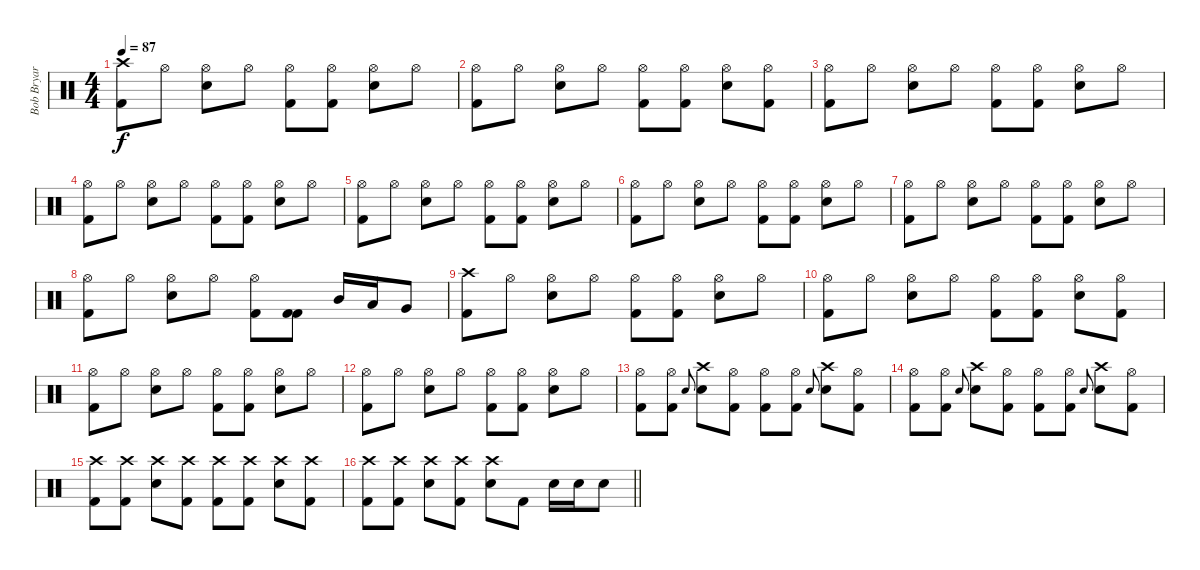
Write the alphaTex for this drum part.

\track ("Bob Bryar" "Bob Bryar") {instrument percussion}
\staff {score}
\articulation defaults
\ts (4 4)
\tempo 87
\clef neutral
\ks c
("Crash high (hit)" "Kick (hit) 2").8{dy f} "Hi-Hat (open)".8 ("Hi-Hat (open)" "Electric Snare (hit)").8 "Hi-Hat (open)".8 ("Hi-Hat (open)" "Kick (hit) 2").8 ("Hi-Hat (open)" "Kick (hit) 2").8 ("Hi-Hat (open)" "Electric Snare (hit)").8 "Hi-Hat (open)".8 |
("Hi-Hat (open)" "Kick (hit) 2").8 "Hi-Hat (open)".8 ("Hi-Hat (open)" "Electric Snare (hit)").8 "Hi-Hat (open)".8 ("Hi-Hat (open)" "Kick (hit) 2").8 ("Hi-Hat (open)" "Kick (hit) 2").8 ("Hi-Hat (open)" "Electric Snare (hit)").8 ("Hi-Hat (open)" "Kick (hit) 2").8 |
("Hi-Hat (open)" "Kick (hit) 2").8 "Hi-Hat (open)".8 ("Hi-Hat (open)" "Electric Snare (hit)").8 "Hi-Hat (open)".8 ("Hi-Hat (open)" "Kick (hit) 2").8 ("Hi-Hat (open)" "Kick (hit) 2").8 ("Hi-Hat (open)" "Electric Snare (hit)").8 "Hi-Hat (open)".8 |
("Hi-Hat (open)" "Kick (hit) 2").8 "Hi-Hat (open)".8 ("Hi-Hat (open)" "Electric Snare (hit)").8 "Hi-Hat (open)".8 ("Hi-Hat (open)" "Kick (hit) 2").8 ("Hi-Hat (open)" "Kick (hit) 2").8 ("Hi-Hat (open)" "Electric Snare (hit)").8 "Hi-Hat (open)".8 |
("Hi-Hat (open)" "Kick (hit) 2").8 "Hi-Hat (open)".8 ("Hi-Hat (open)" "Electric Snare (hit)").8 "Hi-Hat (open)".8 ("Hi-Hat (open)" "Kick (hit) 2").8 ("Hi-Hat (open)" "Kick (hit) 2").8 ("Hi-Hat (open)" "Electric Snare (hit)").8 "Hi-Hat (open)".8 |
("Hi-Hat (open)" "Kick (hit) 2").8 "Hi-Hat (open)".8 ("Hi-Hat (open)" "Electric Snare (hit)").8 "Hi-Hat (open)".8 ("Hi-Hat (open)" "Kick (hit) 2").8 ("Hi-Hat (open)" "Kick (hit) 2").8 ("Hi-Hat (open)" "Electric Snare (hit)").8 "Hi-Hat (open)".8 |
("Hi-Hat (open)" "Kick (hit) 2").8 "Hi-Hat (open)".8 ("Hi-Hat (open)" "Electric Snare (hit)").8 "Hi-Hat (open)".8 ("Hi-Hat (open)" "Kick (hit) 2").8 ("Hi-Hat (open)" "Kick (hit) 2").8 ("Hi-Hat (open)" "Electric Snare (hit)").8 "Hi-Hat (open)".8 |
("Hi-Hat (open)" "Kick (hit) 2").8 "Hi-Hat (open)".8 ("Hi-Hat (open)" "Electric Snare (hit)").8 "Hi-Hat (open)".8 ("Hi-Hat (open)" "Kick (hit) 2").8 ("Kick (hit) 2" "Kick (hit) 2").8 "Mid Tom (hit)".16 "Low Tom (hit)".16 "Very Low Tom (hit)".8 |
("Crash high (hit)" "Kick (hit) 2").8 "Hi-Hat (open)".8 ("Hi-Hat (open)" "Electric Snare (hit)").8 "Hi-Hat (open)".8 ("Hi-Hat (open)" "Kick (hit) 2").8 ("Hi-Hat (open)" "Kick (hit) 2").8 ("Hi-Hat (open)" "Electric Snare (hit)").8 "Hi-Hat (open)".8 |
("Hi-Hat (open)" "Kick (hit) 2").8 "Hi-Hat (open)".8 ("Hi-Hat (open)" "Electric Snare (hit)").8 "Hi-Hat (open)".8 ("Hi-Hat (open)" "Kick (hit) 2").8 ("Hi-Hat (open)" "Kick (hit) 2").8 ("Hi-Hat (open)" "Electric Snare (hit)").8 ("Hi-Hat (open)" "Kick (hit) 2").8 |
("Hi-Hat (open)" "Kick (hit) 2").8 "Hi-Hat (open)".8 ("Hi-Hat (open)" "Electric Snare (hit)").8 "Hi-Hat (open)".8 ("Hi-Hat (open)" "Kick (hit) 2").8 ("Hi-Hat (open)" "Kick (hit) 2").8 ("Hi-Hat (open)" "Electric Snare (hit)").8 "Hi-Hat (open)".8 |
("Hi-Hat (open)" "Kick (hit) 2").8 "Hi-Hat (open)".8 ("Hi-Hat (open)" "Electric Snare (hit)").8 "Hi-Hat (open)".8 ("Hi-Hat (open)" "Kick (hit) 2").8 ("Hi-Hat (open)" "Kick (hit) 2").8 ("Hi-Hat (open)" "Electric Snare (hit)").8 "Hi-Hat (open)".8 |
("Hi-Hat (open)" "Kick (hit) 2").8 ("Hi-Hat (open)" "Kick (hit) 2").8 "Electric Snare (hit)".8{gr onbeat} ("Crash high (hit)" "Electric Snare (hit)").8 ("Hi-Hat (open)" "Kick (hit) 2").8 ("Hi-Hat (open)" "Kick (hit) 2").8 ("Hi-Hat (open)" "Kick (hit) 2").8 "Electric Snare (hit)".8{gr onbeat} ("Crash high (hit)" "Electric Snare (hit)").8 ("Hi-Hat (open)" "Kick (hit) 2").8 |
("Hi-Hat (open)" "Kick (hit) 2").8 ("Hi-Hat (open)" "Kick (hit) 2").8 "Electric Snare (hit)".8{gr onbeat} ("Crash high (hit)" "Electric Snare (hit)").8 ("Hi-Hat (open)" "Kick (hit) 2").8 ("Hi-Hat (open)" "Kick (hit) 2").8 ("Hi-Hat (open)" "Kick (hit) 2").8 "Electric Snare (hit)".8{gr onbeat} ("Crash high (hit)" "Electric Snare (hit)").8 ("Hi-Hat (open)" "Kick (hit) 2").8 |
("Crash high (hit)" "Kick (hit) 2").8 ("Crash high (hit)" "Kick (hit) 2").8 ("Crash high (hit)" "Electric Snare (hit)").8 ("Crash high (hit)" "Kick (hit) 2").8 ("Crash high (hit)" "Kick (hit) 2").8 ("Crash high (hit)" "Kick (hit) 2").8 ("Crash high (hit)" "Electric Snare (hit)").8 ("Crash high (hit)" "Kick (hit) 2").8 |
\barLineRight lightlight
("Crash high (hit)" "Kick (hit) 2").8 ("Crash high (hit)" "Kick (hit) 2").8 ("Crash high (hit)" "Electric Snare (hit)").8 ("Crash high (hit)" "Kick (hit) 2").8 ("Crash high (hit)" "Electric Snare (hit)").8 "Kick (hit) 2".8 "Electric Snare (hit)".16 "Electric Snare (hit)".16 "Electric Snare (hit)".8
